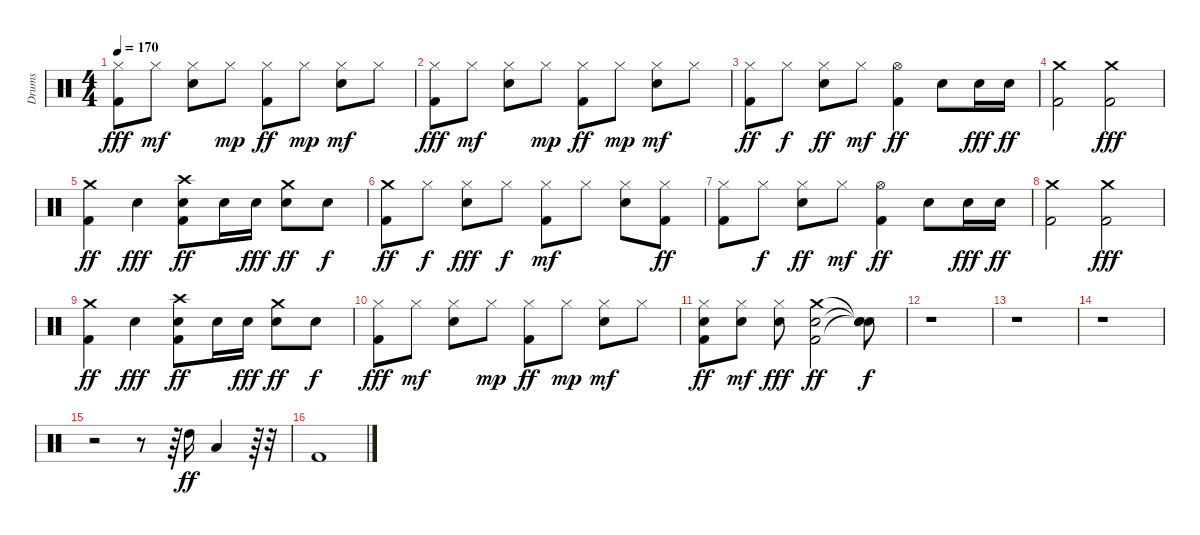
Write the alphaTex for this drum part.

\track ("Drums" "Drums") {instrument percussion}
\staff {score}
\articulation defaults
\ts (4 4)
\tempo 170
\clef neutral
\ks c
("Hi-Hat (closed)" "Kick (hit) 2").8{dy fff} "Hi-Hat (closed)".8{dy mf} ("Hi-Hat (closed)" "Snare (hit) 2").8 "Hi-Hat (closed)".8{dy mp} ("Hi-Hat (closed)" "Kick (hit) 2").8{dy ff} "Hi-Hat (closed)".8{dy mp} ("Hi-Hat (closed)" "Snare (hit) 2").8{dy mf} "Hi-Hat (closed)".8 |
("Hi-Hat (closed)" "Kick (hit) 2").8{dy fff} "Hi-Hat (closed)".8{dy mf} ("Hi-Hat (closed)" "Snare (hit) 2").8 "Hi-Hat (closed)".8{dy mp} ("Hi-Hat (closed)" "Kick (hit) 2").8{dy ff} "Hi-Hat (closed)".8{dy mp} ("Hi-Hat (closed)" "Snare (hit) 2").8{dy mf} "Hi-Hat (closed)".8 |
("Hi-Hat (closed)" "Kick (hit) 2").8{dy ff} "Hi-Hat (closed)".8{dy f} ("Hi-Hat (closed)" "Snare (hit) 2").8{dy ff} "Hi-Hat (closed)".8{dy mf} ("Kick (hit) 2" "Hi-Hat (open)").4{dy ff} "Snare (hit) 2".8 "Snare (hit) 2".16{dy fff} "Snare (hit) 2".16{dy ff} |
("Kick (hit) 2" "Crash medium (hit)").2 ("Kick (hit) 2" "Crash medium (hit)").2{dy fff} |
("Crash medium (hit)" "Kick (hit) 2").4{dy ff} "Snare (hit) 2".4{dy fff} ("Snare (hit) 2" "Kick (hit) 2" "Crash high (hit)").8{dy ff} "Snare (hit) 2".16 "Snare (hit) 2".16{dy fff} ("Snare (hit) 2" "Crash medium (hit)").8{dy ff} "Snare (hit) 2".8{dy f} |
("Crash medium (hit)" "Kick (hit) 2").8{dy ff} "Hi-Hat (closed)".8{dy f} ("Hi-Hat (closed)" "Snare (hit) 2").8{dy fff} "Hi-Hat (closed)".8{dy f} ("Kick (hit) 2" "Hi-Hat (closed)").8{dy mf} "Hi-Hat (closed)".8 ("Snare (hit) 2" "Hi-Hat (closed)").8 ("Hi-Hat (closed)" "Kick (hit) 2").8{dy ff} |
("Hi-Hat (closed)" "Kick (hit) 2").8 "Hi-Hat (closed)".8{dy f} ("Hi-Hat (closed)" "Snare (hit) 2").8{dy ff} "Hi-Hat (closed)".8{dy mf} ("Kick (hit) 2" "Hi-Hat (open)").4{dy ff} "Snare (hit) 2".8 "Snare (hit) 2".16{dy fff} "Snare (hit) 2".16{dy ff} |
("Kick (hit) 2" "Crash medium (hit)").2 ("Kick (hit) 2" "Crash medium (hit)").2{dy fff} |
("Crash medium (hit)" "Kick (hit) 2").4{dy ff} "Snare (hit) 2".4{dy fff} ("Snare (hit) 2" "Kick (hit) 2" "Crash high (hit)").8{dy ff} "Snare (hit) 2".16 "Snare (hit) 2".16{dy fff} ("Snare (hit) 2" "Crash medium (hit)").8{dy ff} "Snare (hit) 2".8{dy f} |
("Hi-Hat (closed)" "Kick (hit) 2").8{dy fff} "Hi-Hat (closed)".8{dy mf} ("Hi-Hat (closed)" "Snare (hit) 2").8 "Hi-Hat (closed)".8{dy mp} ("Hi-Hat (closed)" "Kick (hit) 2").8{dy ff} "Hi-Hat (closed)".8{dy mp} ("Hi-Hat (closed)" "Snare (hit) 2").8{dy mf} "Hi-Hat (closed)".8 |
("Hi-Hat (closed)" "Kick (hit) 2" "Snare (hit) 2").8{dy ff} ("Snare (hit) 2" "Hi-Hat (closed)").8{dy mf} ("Hi-Hat (closed)" "Snare (hit) 2").8{dy fff} ("Kick (hit) 2" "Crash medium (hit)" "Snare (hit) 2").2{dy ff} ("Snare (hit)"{t} "Snare (hit)"{t} "Snare (hit)"{t}).8{dy f} |
r.1 |
r.1 |
r.1 |
r.2 r.8 r.64 "High Tom (hit)".16{dy ff} "Low Tom (hit)".4 r.64 r.32 |
"Kick (hit) 2".1
